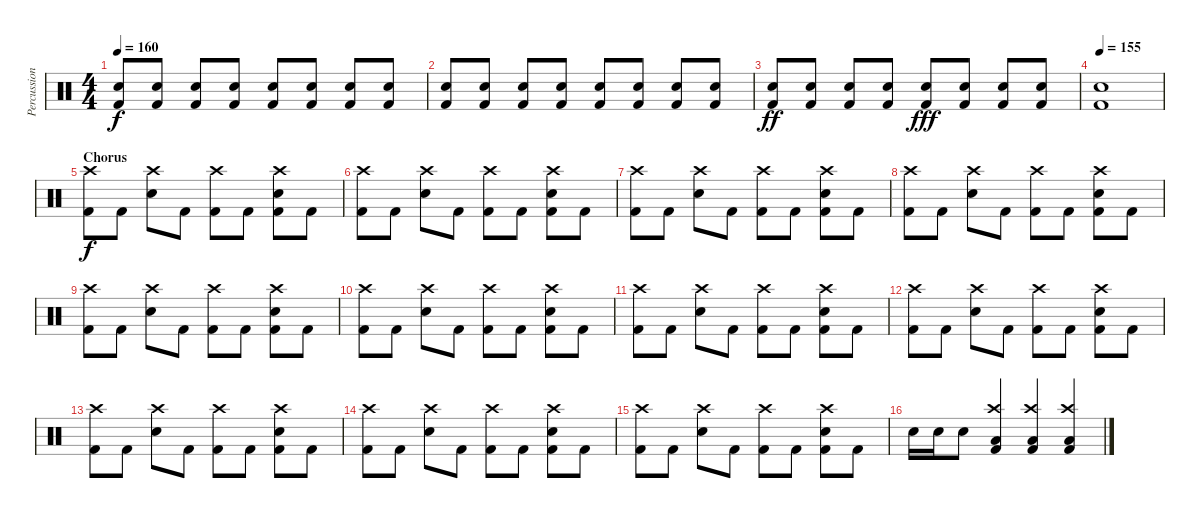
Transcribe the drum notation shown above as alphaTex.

\track ("Percussion" "Percussion") {instrument percussion}
\staff {score}
\articulation defaults
\ts (4 4)
\tempo 160
\clef neutral
\ks c
("Electric Snare (hit)" "Kick (hit) 2").8{dy f volume 12} ("Electric Snare (hit)" "Kick (hit) 2").8 ("Electric Snare (hit)" "Kick (hit) 2").8 ("Electric Snare (hit)" "Kick (hit) 2").8 ("Electric Snare (hit)" "Kick (hit) 2").8 ("Electric Snare (hit)" "Kick (hit) 2").8 ("Electric Snare (hit)" "Kick (hit) 2").8 ("Electric Snare (hit)" "Kick (hit) 2").8 |
("Electric Snare (hit)" "Kick (hit) 2").8 ("Electric Snare (hit)" "Kick (hit) 2").8 ("Electric Snare (hit)" "Kick (hit) 2").8 ("Electric Snare (hit)" "Kick (hit) 2").8 ("Electric Snare (hit)" "Kick (hit) 2").8 ("Electric Snare (hit)" "Kick (hit) 2").8 ("Electric Snare (hit)" "Kick (hit) 2").8 ("Electric Snare (hit)" "Kick (hit) 2").8 |
("Electric Snare (hit)" "Kick (hit) 2").8{dy ff} ("Electric Snare (hit)" "Kick (hit) 2").8 ("Electric Snare (hit)" "Kick (hit) 2").8 ("Electric Snare (hit)" "Kick (hit) 2").8 ("Electric Snare (hit)" "Kick (hit) 2").8{dy fff} ("Electric Snare (hit)" "Kick (hit) 2").8 ("Electric Snare (hit)" "Kick (hit) 2").8 ("Electric Snare (hit)" "Kick (hit) 2").8 |
\tempo 155
("Electric Snare (hit)" "Kick (hit) 2").1 |
\section ("" "Chorus")
("Crash high (hit)" "Kick (hit) 2").8{dy f} "Kick (hit) 2".8 ("Crash high (hit)" "Electric Snare (hit)").8 "Kick (hit) 2".8 ("Crash high (hit)" "Kick (hit) 2").8 "Kick (hit) 2".8 ("Crash high (hit)" "Electric Snare (hit)" "Kick (hit) 2").8 "Kick (hit) 2".8 |
("Crash high (hit)" "Kick (hit) 2").8 "Kick (hit) 2".8 ("Crash high (hit)" "Electric Snare (hit)").8 "Kick (hit) 2".8 ("Crash high (hit)" "Kick (hit) 2").8 "Kick (hit) 2".8 ("Crash high (hit)" "Electric Snare (hit)" "Kick (hit) 2").8 "Kick (hit) 2".8 |
("Crash high (hit)" "Kick (hit) 2").8 "Kick (hit) 2".8 ("Crash high (hit)" "Electric Snare (hit)").8 "Kick (hit) 2".8 ("Crash high (hit)" "Kick (hit) 2").8 "Kick (hit) 2".8 ("Crash high (hit)" "Electric Snare (hit)" "Kick (hit) 2").8 "Kick (hit) 2".8 |
("Crash high (hit)" "Kick (hit) 2").8 "Kick (hit) 2".8 ("Crash high (hit)" "Electric Snare (hit)").8 "Kick (hit) 2".8 ("Crash high (hit)" "Kick (hit) 2").8 "Kick (hit) 2".8 ("Crash high (hit)" "Electric Snare (hit)" "Kick (hit) 2").8 "Kick (hit) 2".8 |
("Crash high (hit)" "Kick (hit) 2").8 "Kick (hit) 2".8 ("Crash high (hit)" "Electric Snare (hit)").8 "Kick (hit) 2".8 ("Crash high (hit)" "Kick (hit) 2").8 "Kick (hit) 2".8 ("Crash high (hit)" "Electric Snare (hit)" "Kick (hit) 2").8 "Kick (hit) 2".8 |
("Crash high (hit)" "Kick (hit) 2").8 "Kick (hit) 2".8 ("Crash high (hit)" "Electric Snare (hit)").8 "Kick (hit) 2".8 ("Crash high (hit)" "Kick (hit) 2").8 "Kick (hit) 2".8 ("Crash high (hit)" "Electric Snare (hit)" "Kick (hit) 2").8 "Kick (hit) 2".8 |
("Crash high (hit)" "Kick (hit) 2").8 "Kick (hit) 2".8 ("Crash high (hit)" "Electric Snare (hit)").8 "Kick (hit) 2".8 ("Crash high (hit)" "Kick (hit) 2").8 "Kick (hit) 2".8 ("Crash high (hit)" "Electric Snare (hit)" "Kick (hit) 2").8 "Kick (hit) 2".8 |
("Crash high (hit)" "Kick (hit) 2").8 "Kick (hit) 2".8 ("Crash high (hit)" "Electric Snare (hit)").8 "Kick (hit) 2".8 ("Crash high (hit)" "Kick (hit) 2").8 "Kick (hit) 2".8 ("Crash high (hit)" "Electric Snare (hit)" "Kick (hit) 2").8 "Kick (hit) 2".8 |
("Crash high (hit)" "Kick (hit) 2").8 "Kick (hit) 2".8 ("Crash high (hit)" "Electric Snare (hit)").8 "Kick (hit) 2".8 ("Crash high (hit)" "Kick (hit) 2").8 "Kick (hit) 2".8 ("Crash high (hit)" "Electric Snare (hit)" "Kick (hit) 2").8 "Kick (hit) 2".8 |
("Crash high (hit)" "Kick (hit) 2").8 "Kick (hit) 2".8 ("Crash high (hit)" "Electric Snare (hit)").8 "Kick (hit) 2".8 ("Crash high (hit)" "Kick (hit) 2").8 "Kick (hit) 2".8 ("Crash high (hit)" "Electric Snare (hit)" "Kick (hit) 2").8 "Kick (hit) 2".8 |
("Crash high (hit)" "Kick (hit) 2").8 "Kick (hit) 2".8 ("Crash high (hit)" "Electric Snare (hit)").8 "Kick (hit) 2".8 ("Crash high (hit)" "Kick (hit) 2").8 "Kick (hit) 2".8 ("Crash high (hit)" "Electric Snare (hit)" "Kick (hit) 2").8 "Kick (hit) 2".8 |
"Electric Snare (hit)".16 "Electric Snare (hit)".16 "Electric Snare (hit)".8 ("Crash high (hit)" "Low Floor Tom (hit)" "Kick (hit) 2").4 ("Crash high (hit)" "Low Floor Tom (hit)" "Kick (hit) 2").4 ("Crash high (hit)" "Low Floor Tom (hit)" "Kick (hit) 2").4
